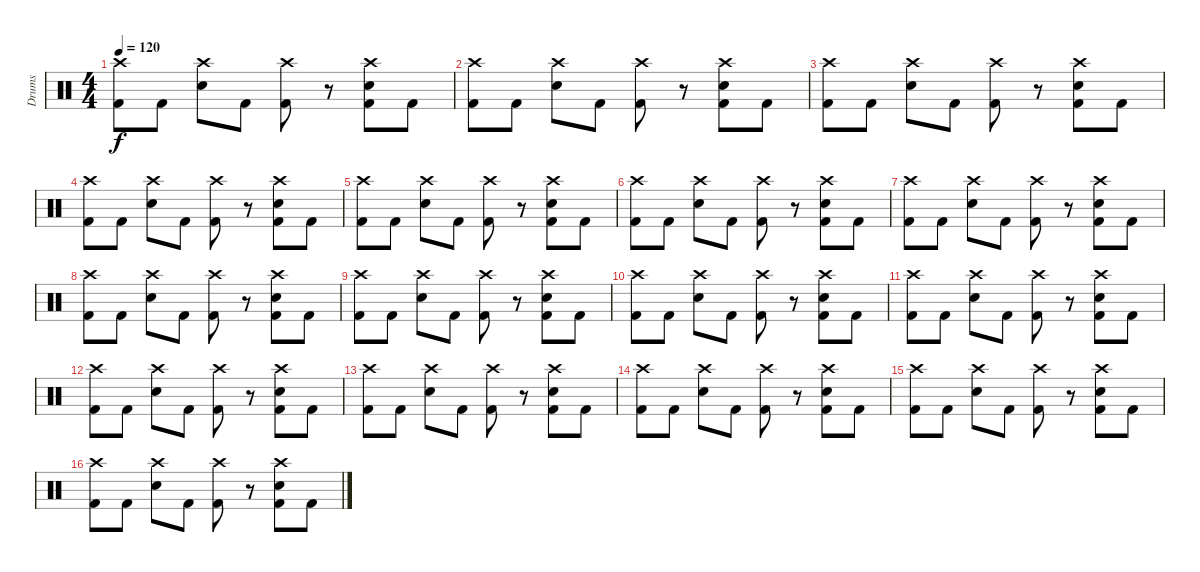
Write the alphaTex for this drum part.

\track ("Drums" "Drums") {instrument percussion}
\staff {score}
\articulation defaults
\ts (4 4)
\tempo 120
\clef neutral
\ks c
("Crash high (hit)" "Kick (hit) 2").8{dy f} "Kick (hit) 2".8 ("Crash high (hit)" "Snare (hit) 2").8 "Kick (hit) 2".8 ("Crash high (hit)" "Kick (hit) 2").8 r.8 ("Crash high (hit)" "Snare (hit) 2" "Kick (hit) 2").8 "Kick (hit) 2".8 |
("Crash high (hit)" "Kick (hit) 2").8 "Kick (hit) 2".8 ("Crash high (hit)" "Snare (hit) 2").8 "Kick (hit) 2".8 ("Crash high (hit)" "Kick (hit) 2").8 r.8 ("Crash high (hit)" "Snare (hit) 2" "Kick (hit) 2").8 "Kick (hit) 2".8 |
("Crash high (hit)" "Kick (hit) 2").8 "Kick (hit) 2".8 ("Crash high (hit)" "Snare (hit) 2").8 "Kick (hit) 2".8 ("Crash high (hit)" "Kick (hit) 2").8 r.8 ("Crash high (hit)" "Snare (hit) 2" "Kick (hit) 2").8 "Kick (hit) 2".8 |
("Crash high (hit)" "Kick (hit) 2").8 "Kick (hit) 2".8 ("Crash high (hit)" "Snare (hit) 2").8 "Kick (hit) 2".8 ("Crash high (hit)" "Kick (hit) 2").8 r.8 ("Crash high (hit)" "Snare (hit) 2" "Kick (hit) 2").8 "Kick (hit) 2".8 |
("Crash high (hit)" "Kick (hit) 2").8 "Kick (hit) 2".8 ("Crash high (hit)" "Snare (hit) 2").8 "Kick (hit) 2".8 ("Crash high (hit)" "Kick (hit) 2").8 r.8 ("Crash high (hit)" "Snare (hit) 2" "Kick (hit) 2").8 "Kick (hit) 2".8 |
("Crash high (hit)" "Kick (hit) 2").8 "Kick (hit) 2".8 ("Crash high (hit)" "Snare (hit) 2").8 "Kick (hit) 2".8 ("Crash high (hit)" "Kick (hit) 2").8 r.8 ("Crash high (hit)" "Snare (hit) 2" "Kick (hit) 2").8 "Kick (hit) 2".8 |
("Crash high (hit)" "Kick (hit) 2").8 "Kick (hit) 2".8 ("Crash high (hit)" "Snare (hit) 2").8 "Kick (hit) 2".8 ("Crash high (hit)" "Kick (hit) 2").8 r.8 ("Crash high (hit)" "Snare (hit) 2" "Kick (hit) 2").8 "Kick (hit) 2".8 |
("Crash high (hit)" "Kick (hit) 2").8 "Kick (hit) 2".8 ("Crash high (hit)" "Snare (hit) 2").8 "Kick (hit) 2".8 ("Crash high (hit)" "Kick (hit) 2").8 r.8 ("Crash high (hit)" "Snare (hit) 2" "Kick (hit) 2").8 "Kick (hit) 2".8 |
("Crash high (hit)" "Kick (hit) 2").8 "Kick (hit) 2".8 ("Crash high (hit)" "Snare (hit) 2").8 "Kick (hit) 2".8 ("Crash high (hit)" "Kick (hit) 2").8 r.8 ("Crash high (hit)" "Snare (hit) 2" "Kick (hit) 2").8 "Kick (hit) 2".8 |
("Crash high (hit)" "Kick (hit) 2").8 "Kick (hit) 2".8 ("Crash high (hit)" "Snare (hit) 2").8 "Kick (hit) 2".8 ("Crash high (hit)" "Kick (hit) 2").8 r.8 ("Crash high (hit)" "Snare (hit) 2" "Kick (hit) 2").8 "Kick (hit) 2".8 |
("Crash high (hit)" "Kick (hit) 2").8 "Kick (hit) 2".8 ("Crash high (hit)" "Snare (hit) 2").8 "Kick (hit) 2".8 ("Crash high (hit)" "Kick (hit) 2").8 r.8 ("Crash high (hit)" "Snare (hit) 2" "Kick (hit) 2").8 "Kick (hit) 2".8 |
("Crash high (hit)" "Kick (hit) 2").8 "Kick (hit) 2".8 ("Crash high (hit)" "Snare (hit) 2").8 "Kick (hit) 2".8 ("Crash high (hit)" "Kick (hit) 2").8 r.8 ("Crash high (hit)" "Snare (hit) 2" "Kick (hit) 2").8 "Kick (hit) 2".8 |
("Crash high (hit)" "Kick (hit) 2").8 "Kick (hit) 2".8 ("Crash high (hit)" "Snare (hit) 2").8 "Kick (hit) 2".8 ("Crash high (hit)" "Kick (hit) 2").8 r.8 ("Crash high (hit)" "Snare (hit) 2" "Kick (hit) 2").8 "Kick (hit) 2".8 |
("Crash high (hit)" "Kick (hit) 2").8 "Kick (hit) 2".8 ("Crash high (hit)" "Snare (hit) 2").8 "Kick (hit) 2".8 ("Crash high (hit)" "Kick (hit) 2").8 r.8 ("Crash high (hit)" "Snare (hit) 2" "Kick (hit) 2").8 "Kick (hit) 2".8 |
("Crash high (hit)" "Kick (hit) 2").8 "Kick (hit) 2".8 ("Crash high (hit)" "Snare (hit) 2").8 "Kick (hit) 2".8 ("Crash high (hit)" "Kick (hit) 2").8 r.8 ("Crash high (hit)" "Snare (hit) 2" "Kick (hit) 2").8 "Kick (hit) 2".8 |
("Crash high (hit)" "Kick (hit) 2").8 "Kick (hit) 2".8 ("Crash high (hit)" "Snare (hit) 2").8 "Kick (hit) 2".8 ("Crash high (hit)" "Kick (hit) 2").8 r.8 ("Crash high (hit)" "Snare (hit) 2" "Kick (hit) 2").8 "Kick (hit) 2".8
